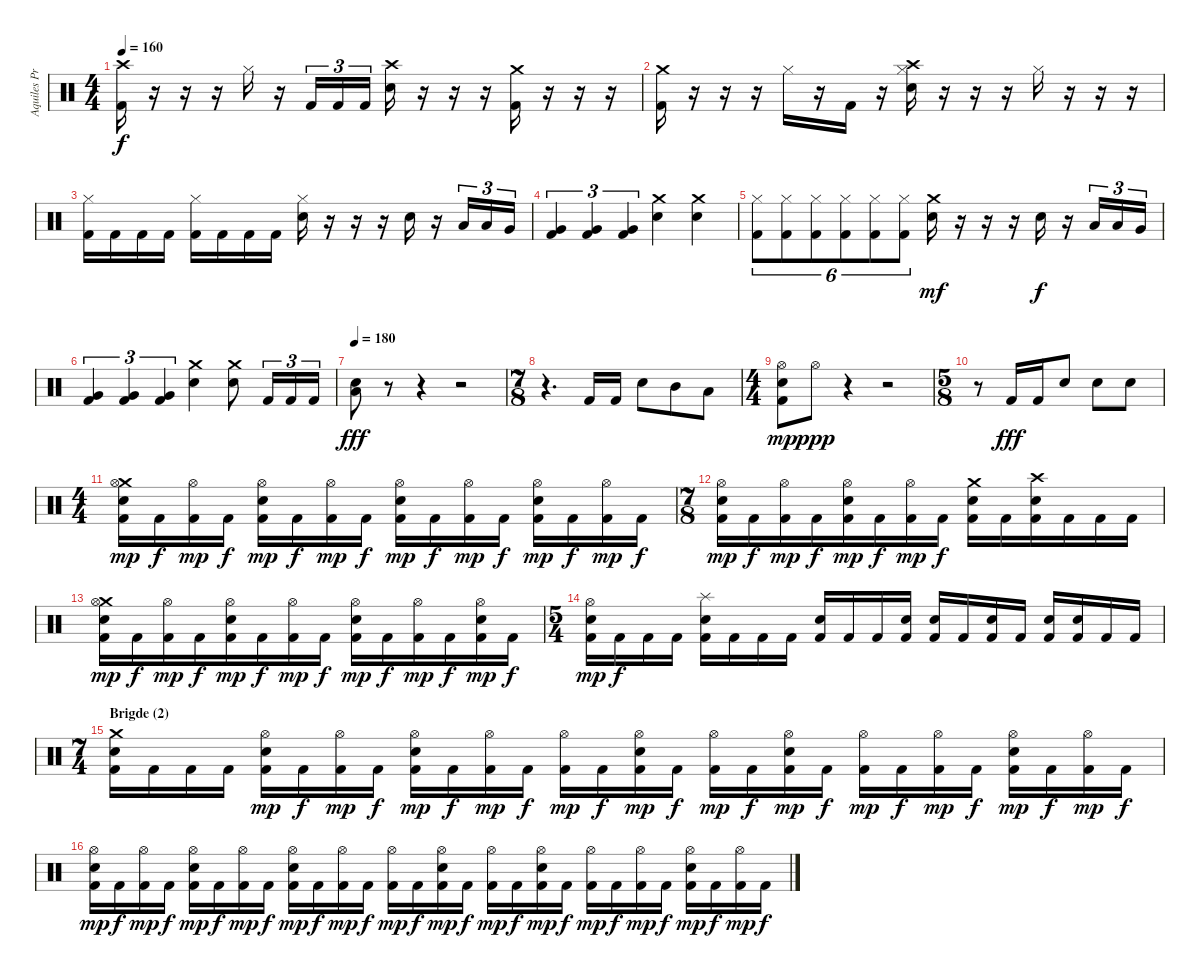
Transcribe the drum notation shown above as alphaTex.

\track ("Aquiles Priester" "Aquiles Pr") {instrument percussion}
\staff {score}
\articulation defaults
\ts (4 4)
\tempo 160
\clef neutral
\ks c
("Crash high (hit)" "Kick (hit) 2").16{dy f} r.16 r.16 r.16 "Hi-Hat (closed)".16 r.16 "Kick (hit) 2".16{tu (3 2)} "Kick (hit) 2".16{tu (3 2)} "Kick (hit) 2".16{tu (3 2)} ("Crash high (hit)" "Snare (hit) 2").16 r.16 r.16 r.16 ("Crash medium (hit)" "Kick (hit) 2").16 r.16 r.16 r.16 |
("Crash medium (hit)" "Kick (hit) 2").16 r.16 r.16 r.16 "Hi-Hat (closed)".16 r.16 "Kick (hit) 2".16 r.16 ("Crash high (hit)" "Hi-Hat (closed)" "Snare (hit) 2").16 r.16 r.16 r.16 "Hi-Hat (closed)".16 r.16 r.16 r.16 |
("Hi-Hat (closed)" "Kick (hit) 2").16 "Kick (hit) 2".16 "Kick (hit) 2".16 "Kick (hit) 2".16 ("Hi-Hat (closed)" "Kick (hit) 2").16 "Kick (hit) 2".16 "Kick (hit) 2".16 "Kick (hit) 2".16 ("Hi-Hat (closed)" "Snare (hit) 2").16 r.16 r.16 r.16 "Snare (hit) 2".16 r.16 "Low Tom (hit)".16{tu (3 2)} "Low Tom (hit)".16{tu (3 2)} "Very Low Tom (hit)".16{tu (3 2)} |
("Very Low Tom (hit)" "Kick (hit) 2").4{tu (3 2)} ("Very Low Tom (hit)" "Kick (hit) 2").4{tu (3 2)} ("Very Low Tom (hit)" "Kick (hit) 2").4{tu (3 2)} ("Crash medium (hit)" "Snare (hit) 2").4 ("Crash medium (hit)" "Snare (hit) 2").4 |
("Hi-Hat (closed)" "Kick (hit) 2").8{tu (6 4)} ("Hi-Hat (closed)" "Kick (hit) 2").8{tu (6 4)} ("Hi-Hat (closed)" "Kick (hit) 2").8{tu (6 4)} ("Hi-Hat (closed)" "Kick (hit) 2").8{tu (6 4)} ("Hi-Hat (closed)" "Kick (hit) 2").8{tu (6 4)} ("Hi-Hat (closed)" "Kick (hit) 2").8{tu (6 4)} ("Crash medium (hit)" "Snare (hit) 2").16{dy mf} r.16 r.16 r.16 "Snare (hit) 2".16{dy f} r.16 "Low Tom (hit)".16{tu (3 2)} "Low Tom (hit)".16{tu (3 2)} "Very Low Tom (hit)".16{tu (3 2)} |
("Very Low Tom (hit)" "Kick (hit) 2").4{tu (3 2)} ("Very Low Tom (hit)" "Kick (hit) 2").4{tu (3 2)} ("Very Low Tom (hit)" "Kick (hit) 2").4{tu (3 2)} ("Crash medium (hit)" "Snare (hit) 2").4 ("Crash medium (hit)" "Snare (hit) 2").8 "Kick (hit) 2".16{tu (3 2)} "Kick (hit) 2".16{tu (3 2)} "Kick (hit) 2".16{tu (3 2)} |
\tempo 180
("Low Tom (hit)" "Snare (hit) 2").8{dy fff} r.8 r.4 r.2 |
\ts (7 8)
r.4{d} "Kick (hit) 2".16 "Kick (hit) 2".16 "Snare (hit) 2".8 "Mid Tom (hit)".8 "Low Tom (hit)".8 |
\ts (4 4)
("Hi-Hat (open)" "Snare (hit) 2" "Kick (hit) 2").8{dy mp} "Hi-Hat (open)".8{dy ppp} r.4 r.2 |
\ts (5 8)
r.8 "Kick (hit) 2".16{dy fff} "Kick (hit) 2".16 "Snare (hit) 2".8 "Snare (hit) 2".8 "Snare (hit) 2".8 |
\ts (4 4)
("Crash medium (hit)" "Hi-Hat (open)" "Snare (hit) 2" "Kick (hit) 2").16{dy mp} "Kick (hit) 2".16{dy f} ("Hi-Hat (open)" "Kick (hit) 2").16{dy mp} "Kick (hit) 2".16{dy f} ("Hi-Hat (open)" "Snare (hit) 2" "Kick (hit) 2").16{dy mp} "Kick (hit) 2".16{dy f} ("Hi-Hat (open)" "Kick (hit) 2").16{dy mp} "Kick (hit) 2".16{dy f} ("Hi-Hat (open)" "Snare (hit) 2" "Kick (hit) 2").16{dy mp} "Kick (hit) 2".16{dy f} ("Hi-Hat (open)" "Kick (hit) 2").16{dy mp} "Kick (hit) 2".16{dy f} ("Hi-Hat (open)" "Snare (hit) 2" "Kick (hit) 2").16{dy mp} "Kick (hit) 2".16{dy f} ("Hi-Hat (open)" "Kick (hit) 2").16{dy mp} "Kick (hit) 2".16{dy f} |
\ts (7 8)
("Hi-Hat (open)" "Snare (hit) 2" "Kick (hit) 2").16{dy mp} "Kick (hit) 2".16{dy f} ("Hi-Hat (open)" "Kick (hit) 2").16{dy mp} "Kick (hit) 2".16{dy f} ("Hi-Hat (open)" "Snare (hit) 2" "Kick (hit) 2").16{dy mp} "Kick (hit) 2".16{dy f} ("Hi-Hat (open)" "Kick (hit) 2").16{dy mp} "Kick (hit) 2".16{dy f} ("Crash medium (hit)" "Snare (hit) 2" "Kick (hit) 2").16 "Kick (hit) 2".16 ("Crash high (hit)" "Snare (hit) 2" "Kick (hit) 2").16 "Kick (hit) 2".16 "Kick (hit) 2".16 "Kick (hit) 2".16 |
("Crash medium (hit)" "Hi-Hat (open)" "Snare (hit) 2" "Kick (hit) 2").16{dy mp} "Kick (hit) 2".16{dy f} ("Hi-Hat (open)" "Kick (hit) 2").16{dy mp} "Kick (hit) 2".16{dy f} ("Hi-Hat (open)" "Snare (hit) 2" "Kick (hit) 2").16{dy mp} "Kick (hit) 2".16{dy f} ("Hi-Hat (open)" "Kick (hit) 2").16{dy mp} "Kick (hit) 2".16{dy f} ("Hi-Hat (open)" "Snare (hit) 2" "Kick (hit) 2").16{dy mp} "Kick (hit) 2".16{dy f} ("Hi-Hat (open)" "Kick (hit) 2").16{dy mp} "Kick (hit) 2".16{dy f} ("Hi-Hat (open)" "Snare (hit) 2" "Kick (hit) 2").16{dy mp} "Kick (hit) 2".16{dy f} |
\ts (5 4)
("Hi-Hat (open)" "Snare (hit) 2" "Kick (hit) 2").16{dy mp} "Kick (hit) 2".16{dy f} "Kick (hit) 2".16 "Kick (hit) 2".16 ("Splash (hit)" "Snare (hit) 2" "Kick (hit) 2").16 "Kick (hit) 2".16 "Kick (hit) 2".16 "Kick (hit) 2".16 ("Snare (hit) 2" "Kick (hit) 2").16 "Kick (hit) 2".16 "Kick (hit) 2".16 ("Snare (hit) 2" "Kick (hit) 2").16 ("Snare (hit) 2" "Kick (hit) 2").16 "Kick (hit) 2".16 ("Snare (hit) 2" "Kick (hit) 2").16 "Kick (hit) 2".16 ("Snare (hit) 2" "Kick (hit) 2").16 ("Snare (hit) 2" "Kick (hit) 2").16 "Kick (hit) 2".16 "Kick (hit) 2".16 |
\ts (7 4)
\section ("" "Brigde (2)")
("Crash medium (hit)" "Snare (hit) 2" "Kick (hit) 2").16 "Kick (hit) 2".16 "Kick (hit) 2".16 "Kick (hit) 2".16 ("Hi-Hat (open)" "Snare (hit) 2" "Kick (hit) 2").16{dy mp} "Kick (hit) 2".16{dy f} ("Hi-Hat (open)" "Kick (hit) 2").16{dy mp} "Kick (hit) 2".16{dy f} ("Hi-Hat (open)" "Snare (hit) 2" "Kick (hit) 2").16{dy mp} "Kick (hit) 2".16{dy f} ("Hi-Hat (open)" "Kick (hit) 2").16{dy mp} "Kick (hit) 2".16{dy f} ("Hi-Hat (open)" "Kick (hit) 2").16{dy mp} "Kick (hit) 2".16{dy f} ("Hi-Hat (open)" "Snare (hit) 2" "Kick (hit) 2").16{dy mp} "Kick (hit) 2".16{dy f} ("Hi-Hat (open)" "Kick (hit) 2").16{dy mp} "Kick (hit) 2".16{dy f} ("Hi-Hat (open)" "Snare (hit) 2" "Kick (hit) 2").16{dy mp} "Kick (hit) 2".16{dy f} ("Hi-Hat (open)" "Kick (hit) 2").16{dy mp} "Kick (hit) 2".16{dy f} ("Hi-Hat (open)" "Kick (hit) 2").16{dy mp} "Kick (hit) 2".16{dy f} ("Hi-Hat (open)" "Snare (hit) 2" "Kick (hit) 2").16{dy mp} "Kick (hit) 2".16{dy f} ("Hi-Hat (open)" "Kick (hit) 2").16{dy mp} "Kick (hit) 2".16{dy f} |
("Hi-Hat (open)" "Snare (hit) 2" "Kick (hit) 2").16{dy mp} "Kick (hit) 2".16{dy f} ("Hi-Hat (open)" "Kick (hit) 2").16{dy mp} "Kick (hit) 2".16{dy f} ("Hi-Hat (open)" "Snare (hit) 2" "Kick (hit) 2").16{dy mp} "Kick (hit) 2".16{dy f} ("Hi-Hat (open)" "Kick (hit) 2").16{dy mp} "Kick (hit) 2".16{dy f} ("Hi-Hat (open)" "Snare (hit) 2" "Kick (hit) 2").16{dy mp} "Kick (hit) 2".16{dy f} ("Hi-Hat (open)" "Kick (hit) 2").16{dy mp} "Kick (hit) 2".16{dy f} ("Hi-Hat (open)" "Kick (hit) 2").16{dy mp} "Kick (hit) 2".16{dy f} ("Hi-Hat (open)" "Snare (hit) 2" "Kick (hit) 2").16{dy mp} "Kick (hit) 2".16{dy f} ("Hi-Hat (open)" "Kick (hit) 2").16{dy mp} "Kick (hit) 2".16{dy f} ("Hi-Hat (open)" "Snare (hit) 2" "Kick (hit) 2").16{dy mp} "Kick (hit) 2".16{dy f} ("Hi-Hat (open)" "Kick (hit) 2").16{dy mp} "Kick (hit) 2".16{dy f} ("Hi-Hat (open)" "Kick (hit) 2").16{dy mp} "Kick (hit) 2".16{dy f} ("Hi-Hat (open)" "Snare (hit) 2" "Kick (hit) 2").16{dy mp} "Kick (hit) 2".16{dy f} ("Hi-Hat (open)" "Kick (hit) 2").16{dy mp} "Kick (hit) 2".16{dy f}
